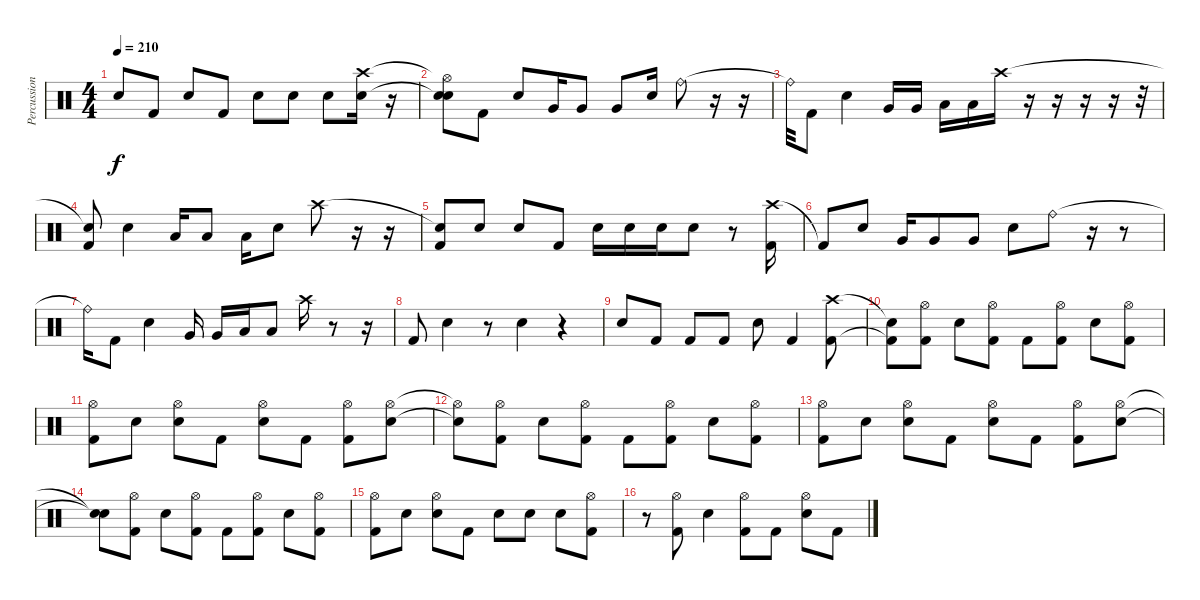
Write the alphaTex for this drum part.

\track ("Percussion" "Percussion") {instrument percussion}
\staff {score}
\articulation defaults
\ts (4 4)
\tempo 210
\clef neutral
\ks c "Electric Snare (hit)".8{dy f} "Kick (hit) 2".8 "Electric Snare (hit)".8 "Kick (hit) 2".8 "Electric Snare (hit)".8 "Electric Snare (hit)".8 "Electric Snare (hit)".8
("Crash high (hit)" "Electric Snare (hit)").16 r.16 |
("Hi-Hat (open)"{t} "Snare (hit)"{t} "Snare (hit)").8 "Kick (hit) 2".8 "Electric Snare (hit)".8 "Very Low Tom (hit)".16 "Very Low Tom (hit)".8 "Very Low Tom (hit)".8 "Electric Snare (hit)".16 "Ride (bell)".8 r.16 r.16 |
"Ride (bell)"{t}.32 "Kick (hit) 2".8 "Electric Snare (hit)".4 "Very Low Tom (hit)".16 "Very Low Tom (hit)".16 "Low Floor Tom (hit)".16 "Low Floor Tom (hit)".16 "Crash high (hit)".16 r.16 r.16 r.16 r.16 r.32 |
("Snare (hit)"{t} "Kick (hit) 2").8 "Electric Snare (hit)".4 "Low Floor Tom (hit)".16 "Low Floor Tom (hit)".8 "Low Floor Tom (hit)".16 "Electric Snare (hit)".8 "Crash high (hit)".8 r.16 r.16 |
("Snare (hit)"{t} "Kick (hit) 2").8 "Electric Snare (hit)".8 "Electric Snare (hit)".8 "Kick (hit) 2".8 "Electric Snare (hit)".16 "Electric Snare (hit)".16 "Electric Snare (hit)".16 "Electric Snare (hit)".8 r.8 ("Crash high (hit)" "Kick (hit) 2").16 |
"Kick (hit) 2"{t}.8 "Electric Snare (hit)".8 "Very Low Tom (hit)".16 "Very Low Tom (hit)".8 "Very Low Tom (hit)".8 "Electric Snare (hit)".8 "Ride (bell)".8 r.16 r.8 |
"Ride (bell)"{t}.16 "Kick (hit) 2".8 "Electric Snare (hit)".4 "Very Low Tom (hit)".16 "Very Low Tom (hit)".16 "Low Floor Tom (hit)".16 "Low Floor Tom (hit)".8 "Crash high (hit)".16 r.8 r.16 |
"Kick (hit) 2".8 "Electric Snare (hit)".4 r.8 "Electric Snare (hit)".4 r.4 |
"Electric Snare (hit)".8 "Kick (hit) 2".8 "Kick (hit) 2".8 "Kick (hit) 2".8 "Electric Snare (hit)".8 "Kick (hit) 2".4 ("Crash high (hit)" "Kick (hit) 2").8 |
("Snare (hit)"{t} "Kick (hit) 2"{t}).8 ("Hi-Hat (open)" "Kick (hit) 2").8 "Electric Snare (hit)".8 ("Hi-Hat (open)" "Kick (hit) 2").8 "Kick (hit) 2".8 ("Hi-Hat (open)" "Kick (hit) 2").8 "Electric Snare (hit)".8 ("Hi-Hat (open)" "Kick (hit) 2").8 |
("Hi-Hat (open)" "Kick (hit) 2").8 "Electric Snare (hit)".8 ("Hi-Hat (open)" "Electric Snare (hit)").8 "Kick (hit) 2".8 ("Hi-Hat (open)" "Electric Snare (hit)").8 "Kick (hit) 2".8 ("Hi-Hat (open)" "Kick (hit) 2").8 ("Hi-Hat (open)" "Electric Snare (hit)").8 |
("Hi-Hat (open)"{t} "Electric Snare (hit)"{t}).8 ("Hi-Hat (open)" "Kick (hit) 2").8 "Electric Snare (hit)".8 ("Hi-Hat (open)" "Kick (hit) 2").8 "Kick (hit) 2".8 ("Hi-Hat (open)" "Kick (hit) 2").8 "Electric Snare (hit)".8 ("Hi-Hat (open)" "Kick (hit) 2").8 |
("Hi-Hat (open)" "Kick (hit) 2").8 "Electric Snare (hit)".8 ("Hi-Hat (open)" "Electric Snare (hit)").8 "Kick (hit) 2".8 ("Hi-Hat (open)" "Electric Snare (hit)").8 "Kick (hit) 2".8 ("Hi-Hat (open)" "Kick (hit) 2").8 ("Hi-Hat (open)" "Electric Snare (hit)").8 |
("Snare (hit)"{t} "Snare (hit)"{t}).8 ("Hi-Hat (open)" "Kick (hit) 2").8 "Electric Snare (hit)".8 ("Hi-Hat (open)" "Kick (hit) 2").8 "Kick (hit) 2".8 ("Hi-Hat (open)" "Kick (hit) 2").8 "Electric Snare (hit)".8 ("Hi-Hat (open)" "Kick (hit) 2").8 |
("Hi-Hat (open)" "Kick (hit) 2").8 "Electric Snare (hit)".8 ("Hi-Hat (open)" "Electric Snare (hit)").8 "Kick (hit) 2".8 "Electric Snare (hit)".8 "Electric Snare (hit)".8 "Electric Snare (hit)".8 ("Hi-Hat (open)" "Kick (hit) 2").8 |
r.8 ("Hi-Hat (open)" "Kick (hit) 2").8 "Electric Snare (hit)".4 ("Hi-Hat (open)" "Kick (hit) 2").8 "Kick (hit) 2".8 ("Hi-Hat (open)" "Electric Snare (hit)").8 "Kick (hit) 2".8
